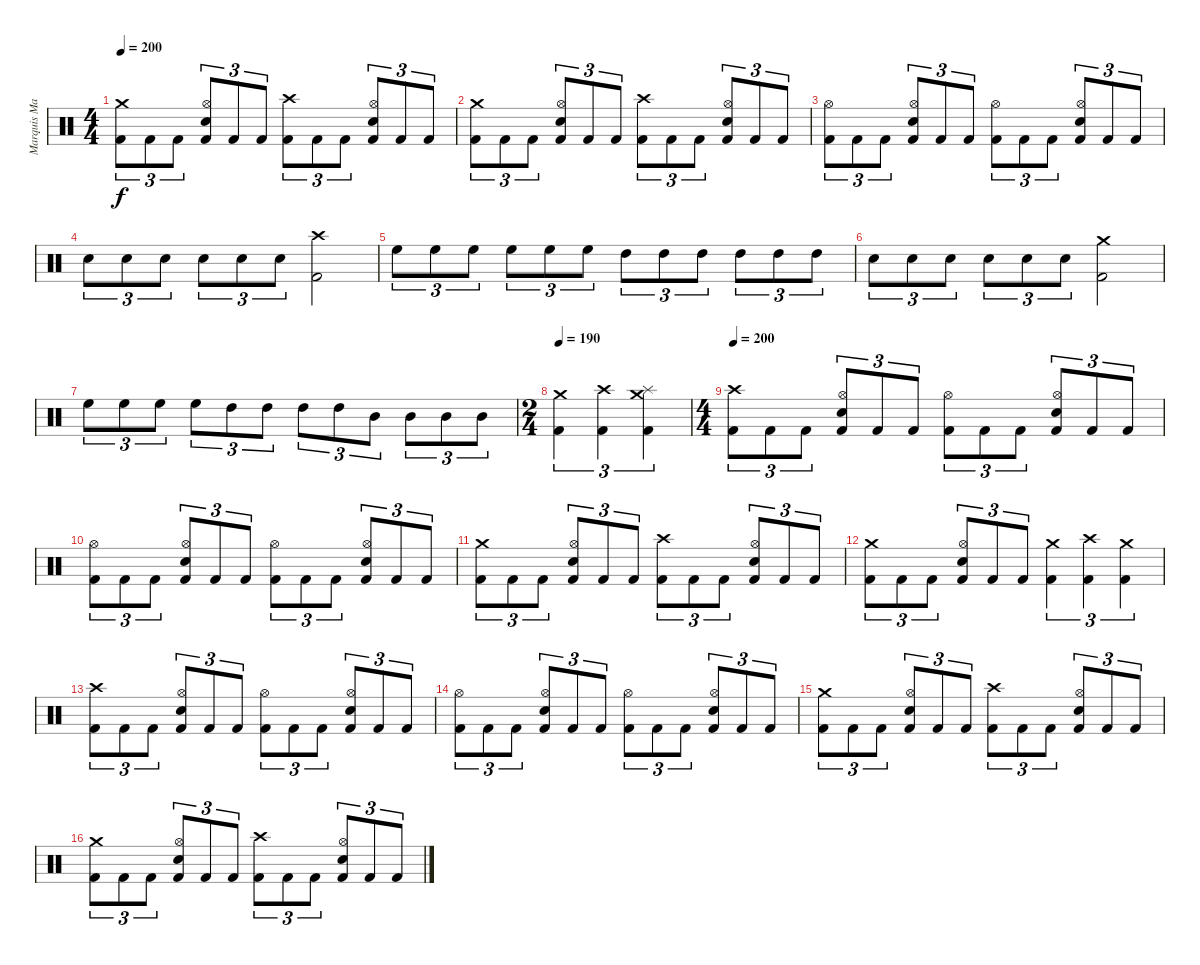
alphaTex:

\track ("Marquis Marky (DRUMS)" "Marquis Ma") {instrument percussion}
\staff {score}
\articulation defaults
\ts (4 4)
\tempo 200
\clef neutral
\ks c
("Crash medium (hit)" "Kick (hit) 2").8{tu (3 2) dy f} "Kick (hit) 2".8{tu (3 2)} "Kick (hit) 2".8{tu (3 2)} ("Hi-Hat (open)" "Snare (hit) 2" "Kick (hit) 2").8{tu (3 2)} "Kick (hit) 2".8{tu (3 2)} "Kick (hit) 2".8{tu (3 2)} ("Crash high (hit)" "Kick (hit) 2").8{tu (3 2)} "Kick (hit) 2".8{tu (3 2)} "Kick (hit) 2".8{tu (3 2)} ("Hi-Hat (open)" "Snare (hit) 2" "Kick (hit) 2").8{tu (3 2)} "Kick (hit) 2".8{tu (3 2)} "Kick (hit) 2".8{tu (3 2)} |
("Crash medium (hit)" "Kick (hit) 2").8{tu (3 2)} "Kick (hit) 2".8{tu (3 2)} "Kick (hit) 2".8{tu (3 2)} ("Hi-Hat (open)" "Snare (hit) 2" "Kick (hit) 2").8{tu (3 2)} "Kick (hit) 2".8{tu (3 2)} "Kick (hit) 2".8{tu (3 2)} ("Crash high (hit)" "Kick (hit) 2").8{tu (3 2)} "Kick (hit) 2".8{tu (3 2)} "Kick (hit) 2".8{tu (3 2)} ("Hi-Hat (open)" "Snare (hit) 2" "Kick (hit) 2").8{tu (3 2)} "Kick (hit) 2".8{tu (3 2)} "Kick (hit) 2".8{tu (3 2)} |
("Hi-Hat (open)" "Kick (hit) 2").8{tu (3 2)} "Kick (hit) 2".8{tu (3 2)} "Kick (hit) 2".8{tu (3 2)} ("Hi-Hat (open)" "Snare (hit) 2" "Kick (hit) 2").8{tu (3 2)} "Kick (hit) 2".8{tu (3 2)} "Kick (hit) 2".8{tu (3 2)} ("Hi-Hat (open)" "Kick (hit) 2").8{tu (3 2)} "Kick (hit) 2".8{tu (3 2)} "Kick (hit) 2".8{tu (3 2)} ("Hi-Hat (open)" "Snare (hit) 2" "Kick (hit) 2").8{tu (3 2)} "Kick (hit) 2".8{tu (3 2)} "Kick (hit) 2".8{tu (3 2)} |
"Snare (hit) 2".8{tu (3 2)} "Snare (hit) 2".8{tu (3 2)} "Snare (hit) 2".8{tu (3 2)} "Snare (hit) 2".8{tu (3 2)} "Snare (hit) 2".8{tu (3 2)} "Snare (hit) 2".8{tu (3 2)} ("Crash high (hit)" "Kick (hit) 2").2 |
"High Floor Tom (hit)".8{tu (3 2)} "High Floor Tom (hit)".8{tu (3 2)} "High Floor Tom (hit)".8{tu (3 2)} "High Floor Tom (hit)".8{tu (3 2)} "High Floor Tom (hit)".8{tu (3 2)} "High Floor Tom (hit)".8{tu (3 2)} "High Tom (hit)".8{tu (3 2)} "High Tom (hit)".8{tu (3 2)} "High Tom (hit)".8{tu (3 2)} "High Tom (hit)".8{tu (3 2)} "High Tom (hit)".8{tu (3 2)} "High Tom (hit)".8{tu (3 2)} |
"Snare (hit) 2".8{tu (3 2)} "Snare (hit) 2".8{tu (3 2)} "Snare (hit) 2".8{tu (3 2)} "Snare (hit) 2".8{tu (3 2)} "Snare (hit) 2".8{tu (3 2)} "Snare (hit) 2".8{tu (3 2)} ("Crash medium (hit)" "Kick (hit) 2").2 |
"High Floor Tom (hit)".8{tu (3 2)} "High Floor Tom (hit)".8{tu (3 2)} "High Floor Tom (hit)".8{tu (3 2)} "High Floor Tom (hit)".8{tu (3 2)} "High Tom (hit)".8{tu (3 2)} "High Tom (hit)".8{tu (3 2)} "High Tom (hit)".8{tu (3 2)} "High Tom (hit)".8{tu (3 2)} "Mid Tom (hit)".8{tu (3 2)} "Mid Tom (hit)".8{tu (3 2)} "Mid Tom (hit)".8{tu (3 2)} "Mid Tom (hit)".8{tu (3 2)} |
\ts (2 4)
\tempo 190
("Crash medium (hit)" "Kick (hit) 2").4{tu (3 2)} ("Crash high (hit)" "Kick (hit) 2").4{tu (3 2)} ("Crash medium (hit)" "Splash (hit)" "Kick (hit) 2").4{tu (3 2)} |
\ts (4 4)
\tempo 200
("Crash high (hit)" "Kick (hit) 2").8{tu (3 2)} "Kick (hit) 2".8{tu (3 2)} "Kick (hit) 2".8{tu (3 2)} ("Hi-Hat (open)" "Snare (hit) 2" "Kick (hit) 2").8{tu (3 2)} "Kick (hit) 2".8{tu (3 2)} "Kick (hit) 2".8{tu (3 2)} ("Hi-Hat (open)" "Kick (hit) 2").8{tu (3 2)} "Kick (hit) 2".8{tu (3 2)} "Kick (hit) 2".8{tu (3 2)} ("Hi-Hat (open)" "Snare (hit) 2" "Kick (hit) 2").8{tu (3 2)} "Kick (hit) 2".8{tu (3 2)} "Kick (hit) 2".8{tu (3 2)} |
("Hi-Hat (open)" "Kick (hit) 2").8{tu (3 2)} "Kick (hit) 2".8{tu (3 2)} "Kick (hit) 2".8{tu (3 2)} ("Hi-Hat (open)" "Snare (hit) 2" "Kick (hit) 2").8{tu (3 2)} "Kick (hit) 2".8{tu (3 2)} "Kick (hit) 2".8{tu (3 2)} ("Hi-Hat (open)" "Kick (hit) 2").8{tu (3 2)} "Kick (hit) 2".8{tu (3 2)} "Kick (hit) 2".8{tu (3 2)} ("Hi-Hat (open)" "Snare (hit) 2" "Kick (hit) 2").8{tu (3 2)} "Kick (hit) 2".8{tu (3 2)} "Kick (hit) 2".8{tu (3 2)} |
("Crash medium (hit)" "Kick (hit) 2").8{tu (3 2)} "Kick (hit) 2".8{tu (3 2)} "Kick (hit) 2".8{tu (3 2)} ("Hi-Hat (open)" "Snare (hit) 2" "Kick (hit) 2").8{tu (3 2)} "Kick (hit) 2".8{tu (3 2)} "Kick (hit) 2".8{tu (3 2)} ("Crash high (hit)" "Kick (hit) 2").8{tu (3 2)} "Kick (hit) 2".8{tu (3 2)} "Kick (hit) 2".8{tu (3 2)} ("Hi-Hat (open)" "Snare (hit) 2" "Kick (hit) 2").8{tu (3 2)} "Kick (hit) 2".8{tu (3 2)} "Kick (hit) 2".8{tu (3 2)} |
("Crash medium (hit)" "Kick (hit) 2").8{tu (3 2)} "Kick (hit) 2".8{tu (3 2)} "Kick (hit) 2".8{tu (3 2)} ("Hi-Hat (open)" "Snare (hit) 2" "Kick (hit) 2").8{tu (3 2)} "Kick (hit) 2".8{tu (3 2)} "Kick (hit) 2".8{tu (3 2)} ("Crash medium (hit)" "Kick (hit) 2").4{tu (3 2)} ("Crash high (hit)" "Kick (hit) 2").4{tu (3 2)} ("Crash medium (hit)" "Kick (hit) 2").4{tu (3 2)} |
("Crash high (hit)" "Kick (hit) 2").8{tu (3 2)} "Kick (hit) 2".8{tu (3 2)} "Kick (hit) 2".8{tu (3 2)} ("Hi-Hat (open)" "Snare (hit) 2" "Kick (hit) 2").8{tu (3 2)} "Kick (hit) 2".8{tu (3 2)} "Kick (hit) 2".8{tu (3 2)} ("Hi-Hat (open)" "Kick (hit) 2").8{tu (3 2)} "Kick (hit) 2".8{tu (3 2)} "Kick (hit) 2".8{tu (3 2)} ("Hi-Hat (open)" "Snare (hit) 2" "Kick (hit) 2").8{tu (3 2)} "Kick (hit) 2".8{tu (3 2)} "Kick (hit) 2".8{tu (3 2)} |
("Hi-Hat (open)" "Kick (hit) 2").8{tu (3 2)} "Kick (hit) 2".8{tu (3 2)} "Kick (hit) 2".8{tu (3 2)} ("Hi-Hat (open)" "Snare (hit) 2" "Kick (hit) 2").8{tu (3 2)} "Kick (hit) 2".8{tu (3 2)} "Kick (hit) 2".8{tu (3 2)} ("Hi-Hat (open)" "Kick (hit) 2").8{tu (3 2)} "Kick (hit) 2".8{tu (3 2)} "Kick (hit) 2".8{tu (3 2)} ("Hi-Hat (open)" "Snare (hit) 2" "Kick (hit) 2").8{tu (3 2)} "Kick (hit) 2".8{tu (3 2)} "Kick (hit) 2".8{tu (3 2)} |
("Crash medium (hit)" "Kick (hit) 2").8{tu (3 2)} "Kick (hit) 2".8{tu (3 2)} "Kick (hit) 2".8{tu (3 2)} ("Hi-Hat (open)" "Snare (hit) 2" "Kick (hit) 2").8{tu (3 2)} "Kick (hit) 2".8{tu (3 2)} "Kick (hit) 2".8{tu (3 2)} ("Crash high (hit)" "Kick (hit) 2").8{tu (3 2)} "Kick (hit) 2".8{tu (3 2)} "Kick (hit) 2".8{tu (3 2)} ("Hi-Hat (open)" "Snare (hit) 2" "Kick (hit) 2").8{tu (3 2)} "Kick (hit) 2".8{tu (3 2)} "Kick (hit) 2".8{tu (3 2)} |
("Crash medium (hit)" "Kick (hit) 2").8{tu (3 2)} "Kick (hit) 2".8{tu (3 2)} "Kick (hit) 2".8{tu (3 2)} ("Hi-Hat (open)" "Snare (hit) 2" "Kick (hit) 2").8{tu (3 2)} "Kick (hit) 2".8{tu (3 2)} "Kick (hit) 2".8{tu (3 2)} ("Crash high (hit)" "Kick (hit) 2").8{tu (3 2)} "Kick (hit) 2".8{tu (3 2)} "Kick (hit) 2".8{tu (3 2)} ("Hi-Hat (open)" "Snare (hit) 2" "Kick (hit) 2").8{tu (3 2)} "Kick (hit) 2".8{tu (3 2)} "Kick (hit) 2".8{tu (3 2)}
